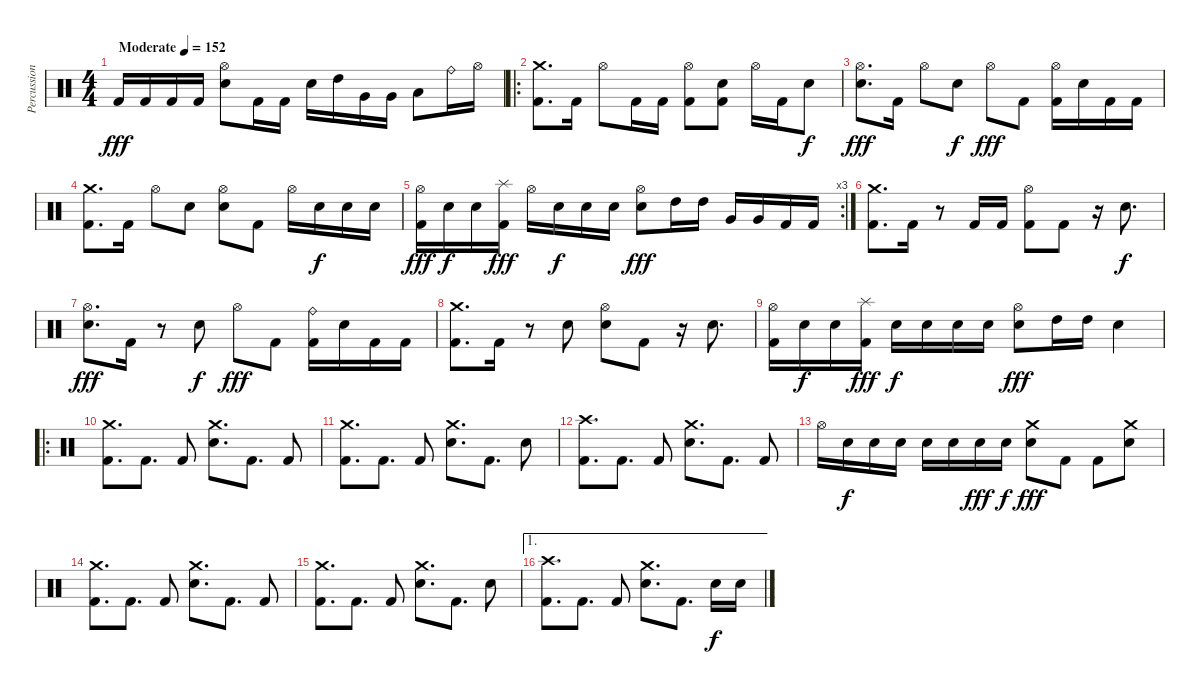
\track ("Percussion" "Percussion") {instrument percussion}
\staff {score}
\articulation defaults
\ts (4 4)
\tempo (152 "Moderate")
\clef neutral
\ks c "Kick (hit) 2".16{dy fff} "Kick (hit) 2".16 "Kick (hit) 2".16 "Kick (hit) 2".16
("Electric Snare (hit)" "Hi-Hat (open)").8 "Kick (hit) 2".16 "Kick (hit) 2".16 "Electric Snare (hit)".16 "High Tom (hit)".16 "Very Low Tom (hit)".16 "Very Low Tom (hit)".16 "Low Floor Tom (hit)".8 "Ride (bell)".16 "Hi-Hat (open)".16 |
\ro
("Kick (hit) 2" "Crash medium (hit)").8{d} "Kick (hit) 2".16 "Hi-Hat (open)".8 "Kick (hit) 2".16 "Kick (hit) 2".16 ("Kick (hit) 2" "Hi-Hat (open)").8 ("Electric Snare (hit)" "Kick (hit) 2").8 "Hi-Hat (open)".16 "Kick (hit) 2".16 "Electric Snare (hit)".8{dy f} |
("Electric Snare (hit)" "Hi-Hat (open)").8{d dy fff} "Kick (hit) 2".16 "Hi-Hat (open)".8 "Electric Snare (hit)".8{dy f} "Hi-Hat (open)".8{dy fff} "Kick (hit) 2".8 ("Hi-Hat (open)" "Kick (hit) 2").16 "Electric Snare (hit)".16 "Kick (hit) 2".16 "Kick (hit) 2".16 |
("Kick (hit) 2" "Crash medium (hit)").8{d} "Kick (hit) 2".16 "Hi-Hat (open)".8 "Electric Snare (hit)".8 ("Electric Snare (hit)" "Hi-Hat (open)").8 "Kick (hit) 2".8 "Hi-Hat (open)".16 "Electric Snare (hit)".16{dy f} "Electric Snare (hit)".16 "Electric Snare (hit)".16 |
\rc 3
("Kick (hit) 2" "Hi-Hat (open)").16{dy fff} "Electric Snare (hit)".16{dy f} "Electric Snare (hit)".16 ("Kick (hit) 2" "Splash (hit)").16{dy fff} "Hi-Hat (open)".16 "Electric Snare (hit)".16{dy f} "Electric Snare (hit)".16 "Electric Snare (hit)".16 ("Electric Snare (hit)" "Hi-Hat (open)").8{dy fff} "High Tom (hit)".16 "High Tom (hit)".16 "Very Low Tom (hit)".16 "Very Low Tom (hit)".16 "Kick (hit) 2".16 "Kick (hit) 2".16 |
("Kick (hit) 2" "Crash medium (hit)").8{d} "Kick (hit) 2".16 r.8 "Kick (hit) 2".16 "Kick (hit) 2".16 ("Kick (hit) 2" "Hi-Hat (open)").8 "Kick (hit) 2".8 r.16 "Electric Snare (hit)".8{d dy f} |
("Electric Snare (hit)" "Hi-Hat (open)").8{d dy fff} "Kick (hit) 2".16 r.8 "Electric Snare (hit)".8{dy f} "Hi-Hat (open)".8{dy fff} "Kick (hit) 2".8 ("Ride (bell)" "Kick (hit) 2").16 "Electric Snare (hit)".16 "Kick (hit) 2".16 "Kick (hit) 2".16 |
("Kick (hit) 2" "Crash medium (hit)").8{d} "Kick (hit) 2".16 r.8 "Electric Snare (hit)".8 ("Electric Snare (hit)" "Hi-Hat (open)").8 "Kick (hit) 2".8 r.16 "Electric Snare (hit)".8{d} |
("Kick (hit) 2" "Hi-Hat (open)").16 "Electric Snare (hit)".16{dy f} "Electric Snare (hit)".16 ("Kick (hit) 2" "Splash (hit)").16{dy fff} "Electric Snare (hit)".16{dy f} "Electric Snare (hit)".16 "Electric Snare (hit)".16 "Electric Snare (hit)".16 ("Electric Snare (hit)" "Hi-Hat (open)").8{dy fff} "High Tom (hit)".16 "High Tom (hit)".16 "Electric Snare (hit)".4 |
\ro
("Kick (hit) 2" "Crash medium (hit)").8{d} "Kick (hit) 2".8{d} "Kick (hit) 2".8 ("Electric Snare (hit)" "Crash medium (hit)").8{d} "Kick (hit) 2".8{d} "Kick (hit) 2".8 |
("Kick (hit) 2" "Crash medium (hit)").8{d} "Kick (hit) 2".8{d} "Kick (hit) 2".8 ("Electric Snare (hit)" "Crash medium (hit)").8{d} "Kick (hit) 2".8{d} "Electric Snare (hit)".8 |
("Kick (hit) 2" "Crash high (hit)").8{d} "Kick (hit) 2".8{d} "Kick (hit) 2".8 ("Electric Snare (hit)" "Crash medium (hit)").8{d} "Kick (hit) 2".8{d} "Kick (hit) 2".8 |
"Hi-Hat (open)".16 "Electric Snare (hit)".16{dy f} "Electric Snare (hit)".16 "Electric Snare (hit)".16 "Electric Snare (hit)".16 "Electric Snare (hit)".16 "Electric Snare (hit)".16{dy fff} "Electric Snare (hit)".16{dy f} ("Electric Snare (hit)" "Crash medium (hit)").8{dy fff} "Kick (hit) 2".8 "Kick (hit) 2".8 ("Electric Snare (hit)" "Crash medium (hit)").8 |
("Kick (hit) 2" "Crash medium (hit)").8{d} "Kick (hit) 2".8{d} "Kick (hit) 2".8 ("Electric Snare (hit)" "Crash medium (hit)").8{d} "Kick (hit) 2".8{d} "Kick (hit) 2".8 |
("Kick (hit) 2" "Crash medium (hit)").8{d} "Kick (hit) 2".8{d} "Kick (hit) 2".8 ("Electric Snare (hit)" "Crash medium (hit)").8{d} "Kick (hit) 2".8{d} "Electric Snare (hit)".8 |
\ae 1
("Kick (hit) 2" "Crash high (hit)").8{d} "Kick (hit) 2".8{d} "Kick (hit) 2".8 ("Electric Snare (hit)" "Crash medium (hit)").8{d} "Kick (hit) 2".8{d} "Electric Snare (hit)".16{dy f} "Electric Snare (hit)".16
